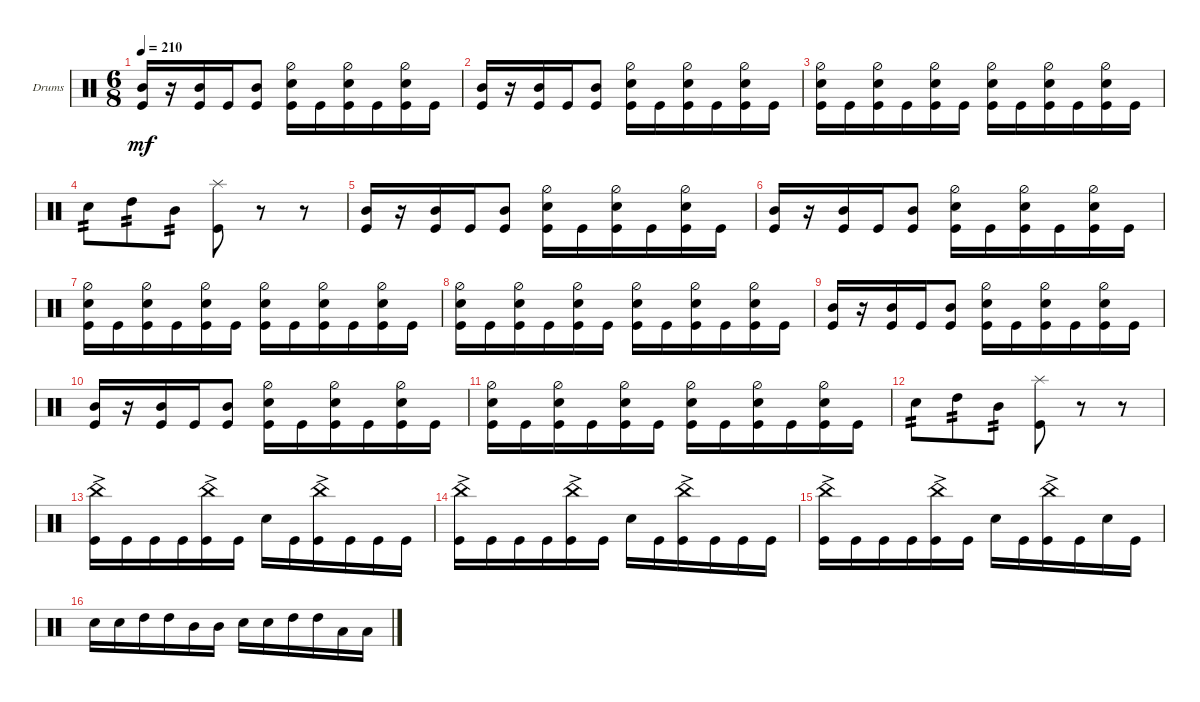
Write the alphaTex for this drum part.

\bracketExtendMode groupsimilarinstruments
\firstSystemTrackNameOrientation horizontal
\otherSystemsTrackNameOrientation horizontal
\track ("Drumkit" "Drums") {instrument percussion}
\staff {score}
\articulation defaults
\ts (6 8)
\tempo 210
\clef neutral
\ks c
("Kick (hit)" "Mid Tom (hit)").16{dy mf} r.16 ("Kick (hit)" "Mid Tom (hit)").16 "Kick (hit)".16 ("Kick (hit)" "Mid Tom (hit)").8 ("Kick (hit)" "Snare (hit) 2" "Hi-Hat (half)").16 "Kick (hit)".16 ("Kick (hit)" "Snare (hit) 2" "Hi-Hat (half)").16 "Kick (hit)".16 ("Kick (hit)" "Snare (hit) 2" "Hi-Hat (half)").16 "Kick (hit)".16 |
("Kick (hit)" "Mid Tom (hit)").16 r.16 ("Kick (hit)" "Mid Tom (hit)").16 "Kick (hit)".16 ("Kick (hit)" "Mid Tom (hit)").8 ("Kick (hit)" "Snare (hit) 2" "Hi-Hat (half)").16 "Kick (hit)".16 ("Kick (hit)" "Snare (hit) 2" "Hi-Hat (half)").16 "Kick (hit)".16 ("Kick (hit)" "Snare (hit) 2" "Hi-Hat (half)").16 "Kick (hit)".16 |
("Kick (hit)" "Snare (hit) 2" "Hi-Hat (half)").16 "Kick (hit)".16 ("Kick (hit)" "Snare (hit) 2" "Hi-Hat (half)").16 "Kick (hit)".16 ("Kick (hit)" "Snare (hit) 2" "Hi-Hat (half)").16 "Kick (hit)".16 ("Kick (hit)" "Snare (hit) 2" "Hi-Hat (half)").16 "Kick (hit)".16 ("Kick (hit)" "Snare (hit) 2" "Hi-Hat (half)").16 "Kick (hit)".16 ("Kick (hit)" "Snare (hit) 2" "Hi-Hat (half)").16 "Kick (hit)".16 |
"Snare (hit) 2".8{tp 2} "High Tom (hit)".8{tp 2} "Mid Tom (hit)".8{tp 2} ("Kick (hit)" "Splash (hit)").8 r.8 r.8 |
("Kick (hit)" "Mid Tom (hit)").16 r.16 ("Kick (hit)" "Mid Tom (hit)").16 "Kick (hit)".16 ("Kick (hit)" "Mid Tom (hit)").8 ("Kick (hit)" "Snare (hit) 2" "Hi-Hat (half)").16 "Kick (hit)".16 ("Kick (hit)" "Snare (hit) 2" "Hi-Hat (half)").16 "Kick (hit)".16 ("Kick (hit)" "Snare (hit) 2" "Hi-Hat (half)").16 "Kick (hit)".16 |
("Kick (hit)" "Mid Tom (hit)").16 r.16 ("Kick (hit)" "Mid Tom (hit)").16 "Kick (hit)".16 ("Kick (hit)" "Mid Tom (hit)").8 ("Kick (hit)" "Snare (hit) 2" "Hi-Hat (half)").16 "Kick (hit)".16 ("Kick (hit)" "Snare (hit) 2" "Hi-Hat (half)").16 "Kick (hit)".16 ("Kick (hit)" "Snare (hit) 2" "Hi-Hat (half)").16 "Kick (hit)".16 |
("Kick (hit)" "Snare (hit) 2" "Hi-Hat (half)").16 "Kick (hit)".16 ("Kick (hit)" "Snare (hit) 2" "Hi-Hat (half)").16 "Kick (hit)".16 ("Kick (hit)" "Snare (hit) 2" "Hi-Hat (half)").16 "Kick (hit)".16 ("Kick (hit)" "Snare (hit) 2" "Hi-Hat (half)").16 "Kick (hit)".16 ("Kick (hit)" "Snare (hit) 2" "Hi-Hat (half)").16 "Kick (hit)".16 ("Kick (hit)" "Snare (hit) 2" "Hi-Hat (half)").16 "Kick (hit)".16 |
("Kick (hit)" "Snare (hit) 2" "Hi-Hat (half)").16 "Kick (hit)".16 ("Kick (hit)" "Snare (hit) 2" "Hi-Hat (half)").16 "Kick (hit)".16 ("Kick (hit)" "Snare (hit) 2" "Hi-Hat (half)").16 "Kick (hit)".16 ("Kick (hit)" "Snare (hit) 2" "Hi-Hat (half)").16 "Kick (hit)".16 ("Kick (hit)" "Snare (hit) 2" "Hi-Hat (half)").16 "Kick (hit)".16 ("Kick (hit)" "Snare (hit) 2" "Hi-Hat (half)").16 "Kick (hit)".16 |
("Kick (hit)" "Mid Tom (hit)").16 r.16 ("Kick (hit)" "Mid Tom (hit)").16 "Kick (hit)".16 ("Kick (hit)" "Mid Tom (hit)").8 ("Kick (hit)" "Snare (hit) 2" "Hi-Hat (half)").16 "Kick (hit)".16 ("Kick (hit)" "Snare (hit) 2" "Hi-Hat (half)").16 "Kick (hit)".16 ("Kick (hit)" "Snare (hit) 2" "Hi-Hat (half)").16 "Kick (hit)".16 |
("Kick (hit)" "Mid Tom (hit)").16 r.16 ("Kick (hit)" "Mid Tom (hit)").16 "Kick (hit)".16 ("Kick (hit)" "Mid Tom (hit)").8 ("Kick (hit)" "Snare (hit) 2" "Hi-Hat (half)").16 "Kick (hit)".16 ("Kick (hit)" "Snare (hit) 2" "Hi-Hat (half)").16 "Kick (hit)".16 ("Kick (hit)" "Snare (hit) 2" "Hi-Hat (half)").16 "Kick (hit)".16 |
("Kick (hit)" "Snare (hit) 2" "Hi-Hat (half)").16 "Kick (hit)".16 ("Kick (hit)" "Snare (hit) 2" "Hi-Hat (half)").16 "Kick (hit)".16 ("Kick (hit)" "Snare (hit) 2" "Hi-Hat (half)").16 "Kick (hit)".16 ("Kick (hit)" "Snare (hit) 2" "Hi-Hat (half)").16 "Kick (hit)".16 ("Kick (hit)" "Snare (hit) 2" "Hi-Hat (half)").16 "Kick (hit)".16 ("Kick (hit)" "Snare (hit) 2" "Hi-Hat (half)").16 "Kick (hit)".16 |
"Snare (hit) 2".8{tp 2} "High Tom (hit)".8{tp 2} "Mid Tom (hit)".8{tp 2} ("Kick (hit)" "Splash (hit)").8 r.8 r.8 |
("Kick (hit)" "China (hit)"{ac}).16 "Kick (hit)".16 "Kick (hit)".16 "Kick (hit)".16 ("Kick (hit)" "China (hit)"{ac}).16 "Kick (hit)".16 "Snare (hit) 2".16 "Kick (hit)".16 ("Kick (hit)" "China (hit)"{ac}).16 "Kick (hit)".16 "Kick (hit)".16 "Kick (hit)".16 |
("Kick (hit)" "China (hit)"{ac}).16 "Kick (hit)".16 "Kick (hit)".16 "Kick (hit)".16 ("Kick (hit)" "China (hit)"{ac}).16 "Kick (hit)".16 "Snare (hit) 2".16 "Kick (hit)".16 ("Kick (hit)" "China (hit)"{ac}).16 "Kick (hit)".16 "Kick (hit)".16 "Kick (hit)".16 |
("Kick (hit)" "China (hit)"{ac}).16 "Kick (hit)".16 "Kick (hit)".16 "Kick (hit)".16 ("Kick (hit)" "China (hit)"{ac}).16 "Kick (hit)".16 "Snare (hit) 2".16 "Kick (hit)".16 ("Kick (hit)" "China (hit)"{ac}).16 "Kick (hit)".16 "Snare (hit) 2".16 "Kick (hit)".16 |
"Snare (hit) 2".16 "Snare (hit) 2".16 "High Tom (hit)".16 "High Tom (hit)".16 "Mid Tom (hit)".16 "Mid Tom (hit)".16 "Snare (hit) 2".16 "Snare (hit) 2".16 "High Tom (hit)".16 "High Tom (hit)".16 "Low Tom (hit)".16 "Low Tom (hit)".16
